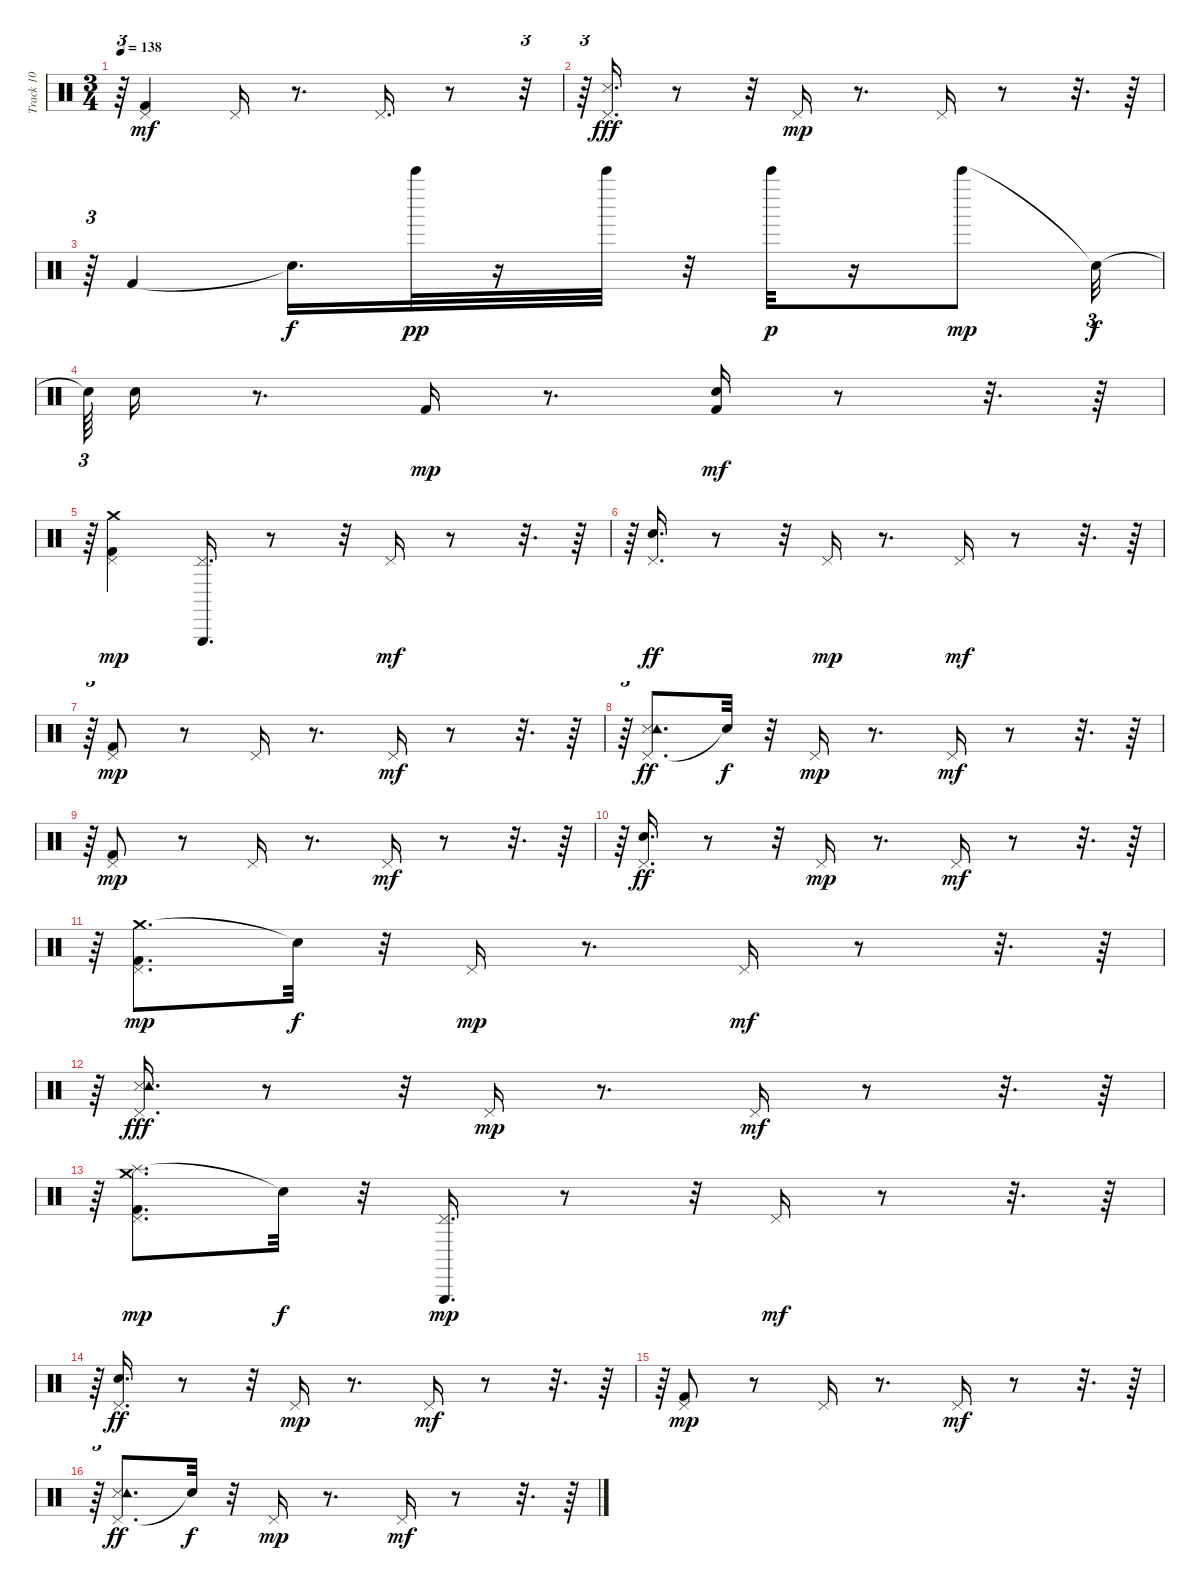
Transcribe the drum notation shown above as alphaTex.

\track ("Track 10" "Track 10") {instrument percussion}
\staff {score}
\articulation defaults
\ts (3 4)
\tempo 138
\clef neutral
\ks c
r.64{tu (3 2) dy mf} ("Kick (hit) 2" "Pedal Hi-Hat (hit)").4 "Pedal Hi-Hat (hit)".16 r.8{d} "Pedal Hi-Hat (hit)".16{d} r.8 r.32{tu (3 2)} |
r.64{tu (3 2)} ("Pedal Hi-Hat (hit)" "Snare (side stick) 3").16{d dy fff} r.8 r.32 "Pedal Hi-Hat (hit)".16{dy mp} r.8{d} "Pedal Hi-Hat (hit)".16 r.8 r.32{d} r.64 |
r.64{tu (3 2)} "Kick (hit) 2".4 "Snare (hit)"{t}.16{d dy f} "Bell Tree (hit)".32{dy pp} r.16 "Bell Tree (hit)".32 r.32 "Bell Tree (hit)".32{dy p} r.16 "Bell Tree (hit)".8{dy mp} "Snare (hit)"{t}.32{tu (3 2) dy f} |
"Snare (hit)"{t}.64{tu (3 2)} "Electric Snare (hit)".16 r.8{d} "Kick (hit) 2".16{dy mp} r.8{d} ("Kick (hit) 2" "Electric Snare (hit)").16{dy mf} r.8 r.32{d} r.64 |
r.64{tu (3 2)} ("Crash medium (hit)" "Pedal Hi-Hat (hit)" "Kick (hit) 2").4{dy mp} ("Pedal Hi-Hat (hit)" "Triangle (hit)").16{d} r.8 r.32 "Pedal Hi-Hat (hit)".16{dy mf} r.8 r.32{d} r.64 |
r.64{tu (3 2)} ("Pedal Hi-Hat (hit)" "Electric Snare (hit)").16{d dy ff} r.8 r.32 "Pedal Hi-Hat (hit)".16{dy mp} r.8{d} "Pedal Hi-Hat (hit)".16{dy mf} r.8 r.32{d} r.64 |
r.64{tu (3 2)} ("Pedal Hi-Hat (hit)" "Kick (hit) 2").8{dy mp} r.8 "Pedal Hi-Hat (hit)".16 r.8{d} "Pedal Hi-Hat (hit)".16{dy mf} r.8 r.32{d} r.64 |
r.64{tu (3 2)} ("Pedal Hi-Hat (hit)" "Snare (side stick) 3" "Tambourine (hit)").8{d dy ff} "Snare (hit)"{t}.32{dy f} r.32 "Pedal Hi-Hat (hit)".16{dy mp} r.8{d} "Pedal Hi-Hat (hit)".16{dy mf} r.8 r.32{d} r.64 |
r.64{tu (3 2)} ("Pedal Hi-Hat (hit)" "Kick (hit) 2").8{dy mp} r.8 "Pedal Hi-Hat (hit)".16 r.8{d} "Pedal Hi-Hat (hit)".16{dy mf} r.8 r.32{d} r.64 |
r.64{tu (3 2)} ("Pedal Hi-Hat (hit)" "Electric Snare (hit)").16{d dy ff} r.8 r.32 "Pedal Hi-Hat (hit)".16{dy mp} r.8{d} "Pedal Hi-Hat (hit)".16{dy mf} r.8 r.32{d} r.64 |
r.64{tu (3 2)} ("Crash medium (hit)" "Pedal Hi-Hat (hit)" "Kick (hit) 2").8{d dy mp} "Snare (hit)"{t}.32{dy f} r.32 "Pedal Hi-Hat (hit)".16{dy mp} r.8{d} "Pedal Hi-Hat (hit)".16{dy mf} r.8 r.32{d} r.64 |
r.64{tu (3 2)} ("Pedal Hi-Hat (hit)" "Snare (side stick) 3" "Tambourine (hit)").16{d dy fff} r.8 r.32 "Pedal Hi-Hat (hit)".16{dy mp} r.8{d} "Pedal Hi-Hat (hit)".16{dy mf} r.8 r.32{d} r.64 |
r.64{tu (3 2)} ("Splash (hit)" "Pedal Hi-Hat (hit)" "Kick (hit) 2" "Crash medium (hit)").8{d dy mp} "Snare (hit)"{t}.32{dy f} r.32 ("Pedal Hi-Hat (hit)" "Triangle (hit)").16{d dy mp} r.8 r.32 "Pedal Hi-Hat (hit)".16{dy mf} r.8 r.32{d} r.64 |
r.64{tu (3 2)} ("Pedal Hi-Hat (hit)" "Electric Snare (hit)").16{d dy ff} r.8 r.32 "Pedal Hi-Hat (hit)".16{dy mp} r.8{d} "Pedal Hi-Hat (hit)".16{dy mf} r.8 r.32{d} r.64 |
r.64{tu (3 2)} ("Pedal Hi-Hat (hit)" "Kick (hit) 2").8{dy mp} r.8 "Pedal Hi-Hat (hit)".16 r.8{d} "Pedal Hi-Hat (hit)".16{dy mf} r.8 r.32{d} r.64 |
r.64{tu (3 2)} ("Pedal Hi-Hat (hit)" "Snare (side stick) 3" "Tambourine (hit)").8{d dy ff} "Snare (hit)"{t}.32{dy f} r.32 "Pedal Hi-Hat (hit)".16{dy mp} r.8{d} "Pedal Hi-Hat (hit)".16{dy mf} r.8 r.32{d} r.64
